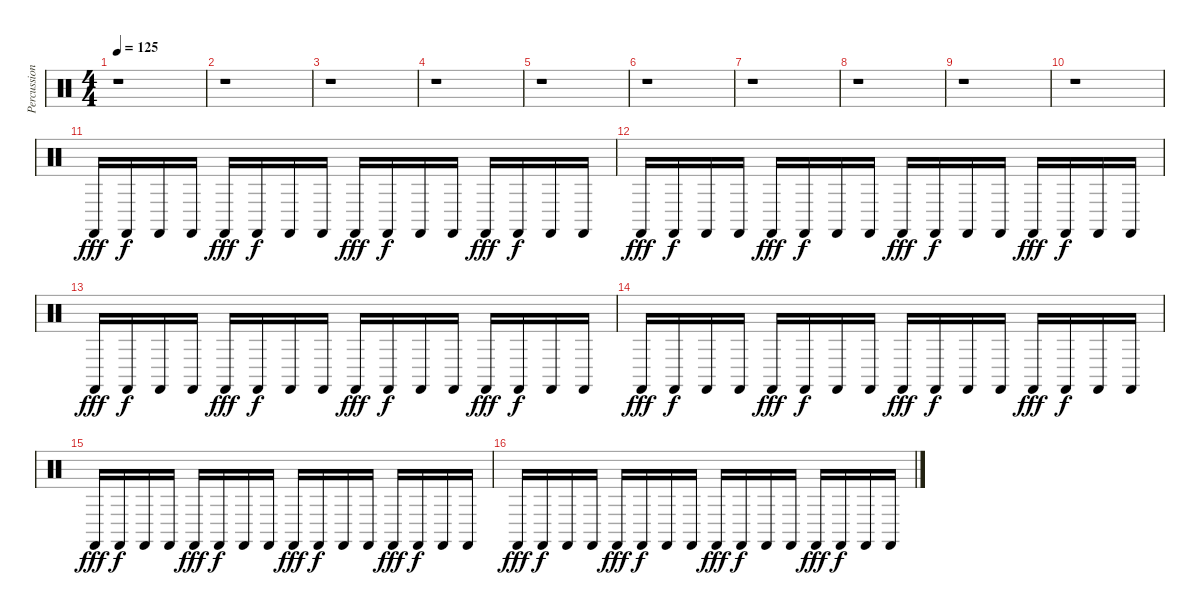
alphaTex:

\track ("Percussion Boris" "Percussion") {instrument percussion}
\staff {score}
\articulation defaults
\ts (4 4)
\tempo 125
\clef neutral
\ks c
r.1{dy fff} |
r.1 |
r.1 |
r.1 |
r.1 |
r.1 |
r.1 |
r.1 |
r.1 |
r.1 |
"Castanets (hit)".16 "Castanets (hit)".16{dy f} "Castanets (hit)".16 "Castanets (hit)".16 "Castanets (hit)".16{dy fff} "Castanets (hit)".16{dy f} "Castanets (hit)".16 "Castanets (hit)".16 "Castanets (hit)".16{dy fff} "Castanets (hit)".16{dy f} "Castanets (hit)".16 "Castanets (hit)".16 "Castanets (hit)".16{dy fff} "Castanets (hit)".16{dy f} "Castanets (hit)".16 "Castanets (hit)".16 |
"Castanets (hit)".16{dy fff} "Castanets (hit)".16{dy f} "Castanets (hit)".16 "Castanets (hit)".16 "Castanets (hit)".16{dy fff} "Castanets (hit)".16{dy f} "Castanets (hit)".16 "Castanets (hit)".16 "Castanets (hit)".16{dy fff} "Castanets (hit)".16{dy f} "Castanets (hit)".16 "Castanets (hit)".16 "Castanets (hit)".16{dy fff} "Castanets (hit)".16{dy f} "Castanets (hit)".16 "Castanets (hit)".16 |
"Castanets (hit)".16{dy fff} "Castanets (hit)".16{dy f} "Castanets (hit)".16 "Castanets (hit)".16 "Castanets (hit)".16{dy fff} "Castanets (hit)".16{dy f} "Castanets (hit)".16 "Castanets (hit)".16 "Castanets (hit)".16{dy fff} "Castanets (hit)".16{dy f} "Castanets (hit)".16 "Castanets (hit)".16 "Castanets (hit)".16{dy fff} "Castanets (hit)".16{dy f} "Castanets (hit)".16 "Castanets (hit)".16 |
"Castanets (hit)".16{dy fff} "Castanets (hit)".16{dy f} "Castanets (hit)".16 "Castanets (hit)".16 "Castanets (hit)".16{dy fff} "Castanets (hit)".16{dy f} "Castanets (hit)".16 "Castanets (hit)".16 "Castanets (hit)".16{dy fff} "Castanets (hit)".16{dy f} "Castanets (hit)".16 "Castanets (hit)".16 "Castanets (hit)".16{dy fff} "Castanets (hit)".16{dy f} "Castanets (hit)".16 "Castanets (hit)".16 |
"Castanets (hit)".16{dy fff} "Castanets (hit)".16{dy f} "Castanets (hit)".16 "Castanets (hit)".16 "Castanets (hit)".16{dy fff} "Castanets (hit)".16{dy f} "Castanets (hit)".16 "Castanets (hit)".16 "Castanets (hit)".16{dy fff} "Castanets (hit)".16{dy f} "Castanets (hit)".16 "Castanets (hit)".16 "Castanets (hit)".16{dy fff} "Castanets (hit)".16{dy f} "Castanets (hit)".16 "Castanets (hit)".16 |
"Castanets (hit)".16{dy fff} "Castanets (hit)".16{dy f} "Castanets (hit)".16 "Castanets (hit)".16 "Castanets (hit)".16{dy fff} "Castanets (hit)".16{dy f} "Castanets (hit)".16 "Castanets (hit)".16 "Castanets (hit)".16{dy fff} "Castanets (hit)".16{dy f} "Castanets (hit)".16 "Castanets (hit)".16 "Castanets (hit)".16{dy fff} "Castanets (hit)".16{dy f} "Castanets (hit)".16 "Castanets (hit)".16
